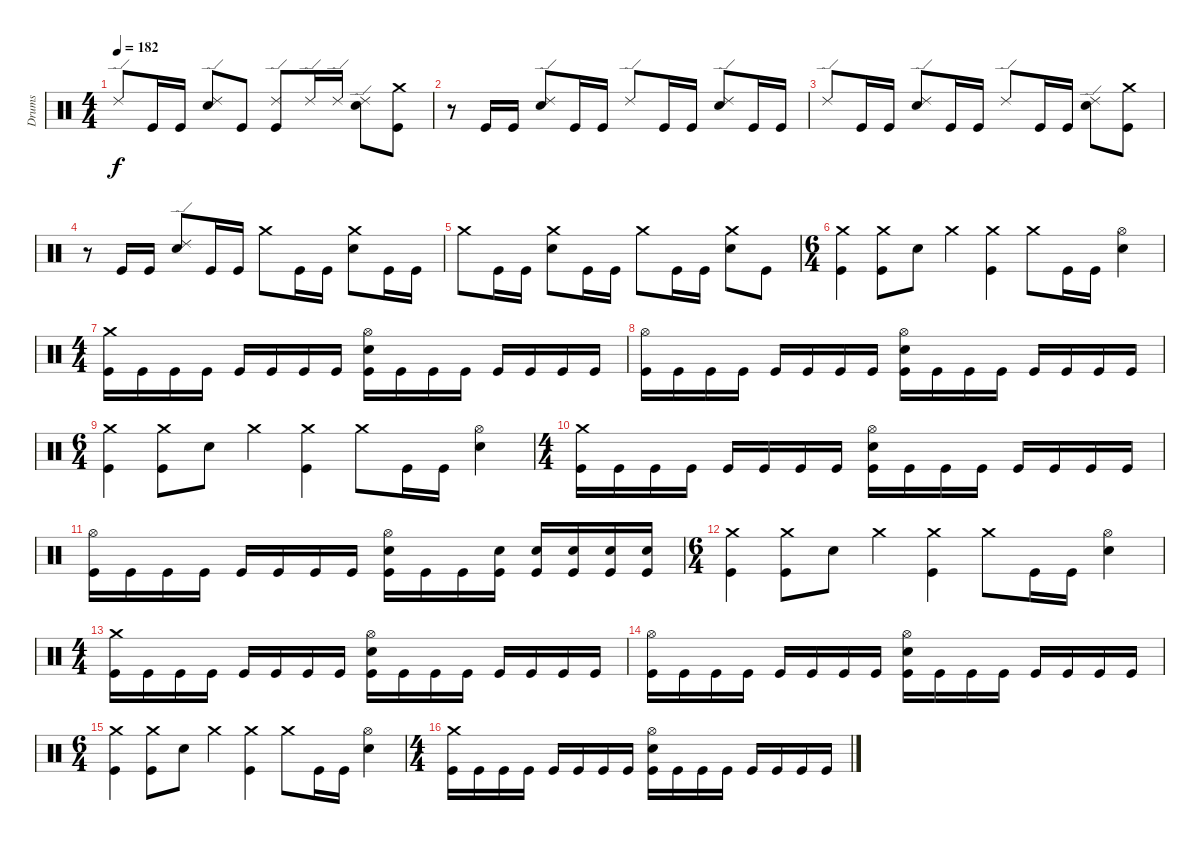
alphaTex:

\track ("Drums" "Drums") {instrument percussion}
\staff {score}
\articulation defaults
\ts (4 4)
\tempo 182
\clef neutral
\ks c "Ride (edge) 2".8{dy f} "Kick (hit)".16 "Kick (hit)".16
("Ride (edge) 2" "Electric Snare (hit)").8 "Kick (hit)".8 ("Ride (edge) 2" "Kick (hit)").8 "Ride (edge) 2".16 "Ride (edge) 2".16 ("Ride (edge) 2" "Electric Snare (hit)").8 ("Crash medium (hit)" "Kick (hit)").8 |
r.8 "Kick (hit)".16 "Kick (hit)".16 ("Ride (edge) 2" "Electric Snare (hit)").8 "Kick (hit)".16 "Kick (hit)".16 "Ride (edge) 2".8 "Kick (hit)".16 "Kick (hit)".16 ("Ride (edge) 2" "Electric Snare (hit)").8 "Kick (hit)".16 "Kick (hit)".16 |
"Ride (edge) 2".8 "Kick (hit)".16 "Kick (hit)".16 ("Ride (edge) 2" "Electric Snare (hit)").8 "Kick (hit)".16 "Kick (hit)".16 "Ride (edge) 2".8 "Kick (hit)".16 "Kick (hit)".16 ("Ride (edge) 2" "Electric Snare (hit)").8 ("Crash medium (hit)" "Kick (hit)").8 |
r.8 "Kick (hit)".16 "Kick (hit)".16 ("Ride (edge) 2" "Electric Snare (hit)").8 "Kick (hit)".16 "Kick (hit)".16 "Crash medium (hit)".8 "Kick (hit)".16 "Kick (hit)".16 ("Crash medium (hit)" "Electric Snare (hit)").8 "Kick (hit)".16 "Kick (hit)".16 |
"Crash medium (hit)".8 "Kick (hit)".16 "Kick (hit)".16 ("Crash medium (hit)" "Electric Snare (hit)").8 "Kick (hit)".16 "Kick (hit)".16 "Crash medium (hit)".8 "Kick (hit)".16 "Kick (hit)".16 ("Crash medium (hit)" "Electric Snare (hit)").8 "Kick (hit)".8 |
\ts (6 4)
("Crash medium (hit)" "Kick (hit)").4 ("Crash medium (hit)" "Kick (hit)").8 "Electric Snare (hit)".8 "Crash medium (hit)".4 ("Crash medium (hit)" "Kick (hit)").4 "Crash medium (hit)".8 "Kick (hit)".16 "Kick (hit)".16 ("Hi-Hat (open)" "Electric Snare (hit)").4 |
\ts (4 4)
("Crash medium (hit)" "Kick (hit)").16 "Kick (hit)".16 "Kick (hit)".16 "Kick (hit)".16 "Kick (hit)".16 "Kick (hit)".16 "Kick (hit)".16 "Kick (hit)".16 ("Hi-Hat (open)" "Electric Snare (hit)" "Kick (hit)").16 "Kick (hit)".16 "Kick (hit)".16 "Kick (hit)".16 "Kick (hit)".16 "Kick (hit)".16 "Kick (hit)".16 "Kick (hit)".16 |
("Hi-Hat (open)" "Kick (hit)").16 "Kick (hit)".16 "Kick (hit)".16 "Kick (hit)".16 "Kick (hit)".16 "Kick (hit)".16 "Kick (hit)".16 "Kick (hit)".16 ("Hi-Hat (open)" "Electric Snare (hit)" "Kick (hit)").16 "Kick (hit)".16 "Kick (hit)".16 "Kick (hit)".16 "Kick (hit)".16 "Kick (hit)".16 "Kick (hit)".16 "Kick (hit)".16 |
\ts (6 4)
("Crash medium (hit)" "Kick (hit)").4 ("Crash medium (hit)" "Kick (hit)").8 "Electric Snare (hit)".8 "Crash medium (hit)".4 ("Crash medium (hit)" "Kick (hit)").4 "Crash medium (hit)".8 "Kick (hit)".16 "Kick (hit)".16 ("Hi-Hat (open)" "Electric Snare (hit)").4 |
\ts (4 4)
("Crash medium (hit)" "Kick (hit)").16 "Kick (hit)".16 "Kick (hit)".16 "Kick (hit)".16 "Kick (hit)".16 "Kick (hit)".16 "Kick (hit)".16 "Kick (hit)".16 ("Hi-Hat (open)" "Electric Snare (hit)" "Kick (hit)").16 "Kick (hit)".16 "Kick (hit)".16 "Kick (hit)".16 "Kick (hit)".16 "Kick (hit)".16 "Kick (hit)".16 "Kick (hit)".16 |
("Hi-Hat (open)" "Kick (hit)").16 "Kick (hit)".16 "Kick (hit)".16 "Kick (hit)".16 "Kick (hit)".16 "Kick (hit)".16 "Kick (hit)".16 "Kick (hit)".16 ("Hi-Hat (open)" "Electric Snare (hit)" "Kick (hit)").16 "Kick (hit)".16 "Kick (hit)".16 ("Electric Snare (hit)" "Kick (hit)").16 ("Electric Snare (hit)" "Kick (hit)").16 ("Electric Snare (hit)" "Kick (hit)").16 ("Electric Snare (hit)" "Kick (hit)").16 ("Electric Snare (hit)" "Kick (hit)").16 |
\ts (6 4)
("Crash medium (hit)" "Kick (hit)").4 ("Crash medium (hit)" "Kick (hit)").8 "Electric Snare (hit)".8 "Crash medium (hit)".4 ("Crash medium (hit)" "Kick (hit)").4 "Crash medium (hit)".8 "Kick (hit)".16 "Kick (hit)".16 ("Hi-Hat (open)" "Electric Snare (hit)").4 |
\ts (4 4)
("Crash medium (hit)" "Kick (hit)").16 "Kick (hit)".16 "Kick (hit)".16 "Kick (hit)".16 "Kick (hit)".16 "Kick (hit)".16 "Kick (hit)".16 "Kick (hit)".16 ("Hi-Hat (open)" "Electric Snare (hit)" "Kick (hit)").16 "Kick (hit)".16 "Kick (hit)".16 "Kick (hit)".16 "Kick (hit)".16 "Kick (hit)".16 "Kick (hit)".16 "Kick (hit)".16 |
("Hi-Hat (open)" "Kick (hit)").16 "Kick (hit)".16 "Kick (hit)".16 "Kick (hit)".16 "Kick (hit)".16 "Kick (hit)".16 "Kick (hit)".16 "Kick (hit)".16 ("Hi-Hat (open)" "Electric Snare (hit)" "Kick (hit)").16 "Kick (hit)".16 "Kick (hit)".16 "Kick (hit)".16 "Kick (hit)".16 "Kick (hit)".16 "Kick (hit)".16 "Kick (hit)".16 |
\ts (6 4)
("Crash medium (hit)" "Kick (hit)").4 ("Crash medium (hit)" "Kick (hit)").8 "Electric Snare (hit)".8 "Crash medium (hit)".4 ("Crash medium (hit)" "Kick (hit)").4 "Crash medium (hit)".8 "Kick (hit)".16 "Kick (hit)".16 ("Hi-Hat (open)" "Electric Snare (hit)").4 |
\ts (4 4)
("Crash medium (hit)" "Kick (hit)").16 "Kick (hit)".16 "Kick (hit)".16 "Kick (hit)".16 "Kick (hit)".16 "Kick (hit)".16 "Kick (hit)".16 "Kick (hit)".16 ("Hi-Hat (open)" "Electric Snare (hit)" "Kick (hit)").16 "Kick (hit)".16 "Kick (hit)".16 "Kick (hit)".16 "Kick (hit)".16 "Kick (hit)".16 "Kick (hit)".16 "Kick (hit)".16
